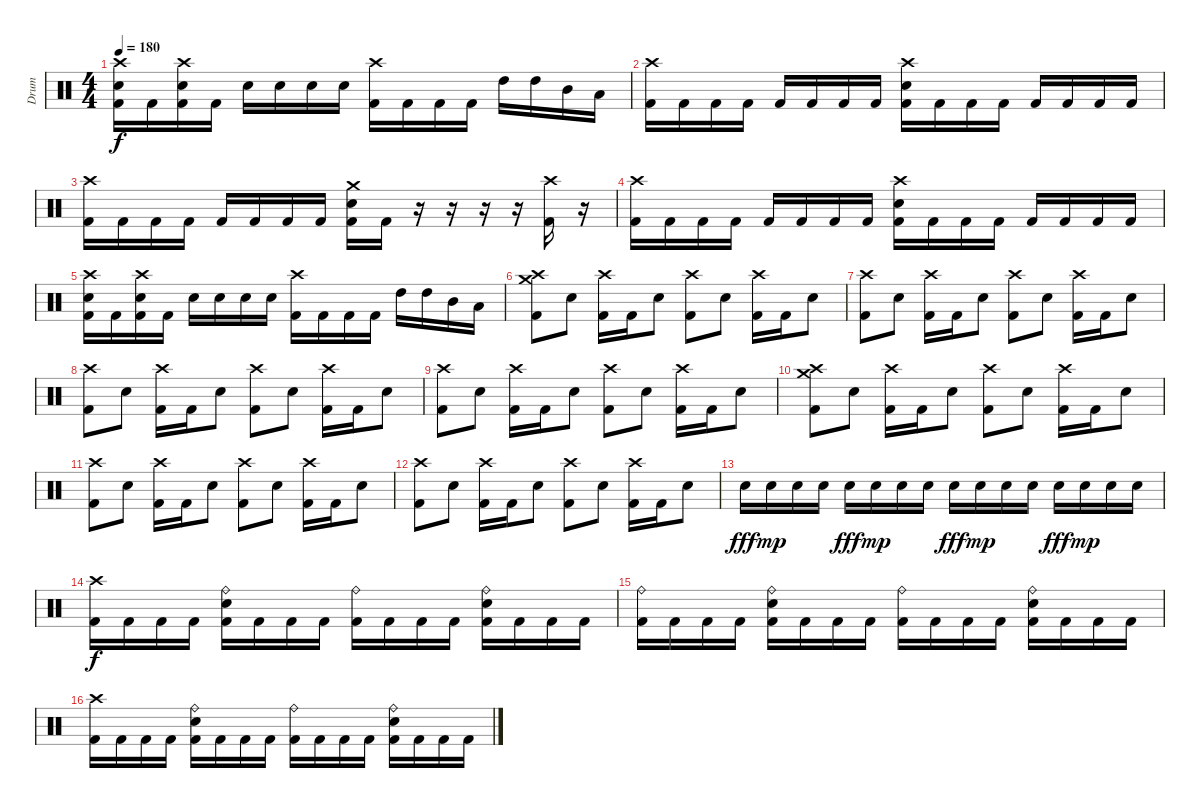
\track ("Drum" "Drum") {instrument percussion}
\staff {score}
\articulation defaults
\ts (4 4)
\tempo 180
\clef neutral
\ks c
("Crash high (hit)" "Electric Snare (hit)" "Kick (hit) 2").16{dy f} "Kick (hit) 2".16 ("Crash high (hit)" "Electric Snare (hit)" "Kick (hit) 2").16 "Kick (hit) 2".16 "Electric Snare (hit)".16 "Electric Snare (hit)".16 "Electric Snare (hit)".16 "Electric Snare (hit)".16 ("Crash high (hit)" "Kick (hit) 2").16 "Kick (hit) 2".16 "Kick (hit) 2".16 "Kick (hit) 2".16 "High Tom (hit)".16 "High Tom (hit)".16 "Mid Tom (hit)".16 "Low Tom (hit)".16 |
("Crash high (hit)" "Kick (hit) 2").16 "Kick (hit) 2".16 "Kick (hit) 2".16 "Kick (hit) 2".16 "Kick (hit) 2".16 "Kick (hit) 2".16 "Kick (hit) 2".16 "Kick (hit) 2".16 ("Crash high (hit)" "Electric Snare (hit)" "Kick (hit) 2").16 "Kick (hit) 2".16 "Kick (hit) 2".16 "Kick (hit) 2".16 "Kick (hit) 2".16 "Kick (hit) 2".16 "Kick (hit) 2".16 "Kick (hit) 2".16 |
("Crash high (hit)" "Kick (hit) 2").16 "Kick (hit) 2".16 "Kick (hit) 2".16 "Kick (hit) 2".16 "Kick (hit) 2".16 "Kick (hit) 2".16 "Kick (hit) 2".16 "Kick (hit) 2".16 ("Crash medium (hit)" "Electric Snare (hit)" "Kick (hit) 2").16 "Kick (hit) 2".16 r.16 r.16 r.16 r.16 ("Crash high (hit)" "Kick (hit) 2").16 r.16 |
("Crash high (hit)" "Kick (hit) 2").16 "Kick (hit) 2".16 "Kick (hit) 2".16 "Kick (hit) 2".16 "Kick (hit) 2".16 "Kick (hit) 2".16 "Kick (hit) 2".16 "Kick (hit) 2".16 ("Crash high (hit)" "Electric Snare (hit)" "Kick (hit) 2").16 "Kick (hit) 2".16 "Kick (hit) 2".16 "Kick (hit) 2".16 "Kick (hit) 2".16 "Kick (hit) 2".16 "Kick (hit) 2".16 "Kick (hit) 2".16 |
("Crash high (hit)" "Electric Snare (hit)" "Kick (hit) 2").16 "Kick (hit) 2".16 ("Crash high (hit)" "Electric Snare (hit)" "Kick (hit) 2").16 "Kick (hit) 2".16 "Electric Snare (hit)".16 "Electric Snare (hit)".16 "Electric Snare (hit)".16 "Electric Snare (hit)".16 ("Crash high (hit)" "Kick (hit) 2").16 "Kick (hit) 2".16 "Kick (hit) 2".16 "Kick (hit) 2".16 "High Tom (hit)".16 "High Tom (hit)".16 "Mid Tom (hit)".16 "Low Tom (hit)".16 |
("Crash high (hit)" "Crash medium (hit)" "Kick (hit) 2").8 "Electric Snare (hit)".8 ("Crash high (hit)" "Kick (hit) 2").16 "Kick (hit) 2".16 "Electric Snare (hit)".8 ("Crash high (hit)" "Kick (hit) 2").8 "Electric Snare (hit)".8 ("Crash high (hit)" "Kick (hit) 2").16 "Kick (hit) 2".16 "Electric Snare (hit)".8 |
("Crash high (hit)" "Kick (hit) 2").8 "Electric Snare (hit)".8 ("Crash high (hit)" "Kick (hit) 2").16 "Kick (hit) 2".16 "Electric Snare (hit)".8 ("Crash high (hit)" "Kick (hit) 2").8 "Electric Snare (hit)".8 ("Crash high (hit)" "Kick (hit) 2").16 "Kick (hit) 2".16 "Electric Snare (hit)".8 |
("Crash high (hit)" "Kick (hit) 2").8 "Electric Snare (hit)".8 ("Crash high (hit)" "Kick (hit) 2").16 "Kick (hit) 2".16 "Electric Snare (hit)".8 ("Crash high (hit)" "Kick (hit) 2").8 "Electric Snare (hit)".8 ("Crash high (hit)" "Kick (hit) 2").16 "Kick (hit) 2".16 "Electric Snare (hit)".8 |
("Crash high (hit)" "Kick (hit) 2").8 "Electric Snare (hit)".8 ("Crash high (hit)" "Kick (hit) 2").16 "Kick (hit) 2".16 "Electric Snare (hit)".8 ("Crash high (hit)" "Kick (hit) 2").8 "Electric Snare (hit)".8 ("Crash high (hit)" "Kick (hit) 2").16 "Kick (hit) 2".16 "Electric Snare (hit)".8 |
("Crash high (hit)" "Crash medium (hit)" "Kick (hit) 2").8 "Electric Snare (hit)".8 ("Crash high (hit)" "Kick (hit) 2").16 "Kick (hit) 2".16 "Electric Snare (hit)".8 ("Crash high (hit)" "Kick (hit) 2").8 "Electric Snare (hit)".8 ("Crash high (hit)" "Kick (hit) 2").16 "Kick (hit) 2".16 "Electric Snare (hit)".8 |
("Crash high (hit)" "Kick (hit) 2").8 "Electric Snare (hit)".8 ("Crash high (hit)" "Kick (hit) 2").16 "Kick (hit) 2".16 "Electric Snare (hit)".8 ("Crash high (hit)" "Kick (hit) 2").8 "Electric Snare (hit)".8 ("Crash high (hit)" "Kick (hit) 2").16 "Kick (hit) 2".16 "Electric Snare (hit)".8 |
("Crash high (hit)" "Kick (hit) 2").8 "Electric Snare (hit)".8 ("Crash high (hit)" "Kick (hit) 2").16 "Kick (hit) 2".16 "Electric Snare (hit)".8 ("Crash high (hit)" "Kick (hit) 2").8 "Electric Snare (hit)".8 ("Crash high (hit)" "Kick (hit) 2").16 "Kick (hit) 2".16 "Electric Snare (hit)".8 |
"Electric Snare (hit)".16{dy fff} "Electric Snare (hit)".16{dy mp} "Electric Snare (hit)".16 "Electric Snare (hit)".16 "Electric Snare (hit)".16{dy fff} "Electric Snare (hit)".16{dy mp} "Electric Snare (hit)".16 "Electric Snare (hit)".16 "Electric Snare (hit)".16{dy fff} "Electric Snare (hit)".16{dy mp} "Electric Snare (hit)".16 "Electric Snare (hit)".16 "Electric Snare (hit)".16{dy fff} "Electric Snare (hit)".16{dy mp} "Electric Snare (hit)".16 "Electric Snare (hit)".16 |
("Crash high (hit)" "Kick (hit) 2").16{dy f} "Kick (hit) 2".16 "Kick (hit) 2".16 "Kick (hit) 2".16 ("Ride (bell)" "Electric Snare (hit)" "Kick (hit) 2").16 "Kick (hit) 2".16 "Kick (hit) 2".16 "Kick (hit) 2".16 ("Ride (bell)" "Kick (hit) 2").16 "Kick (hit) 2".16 "Kick (hit) 2".16 "Kick (hit) 2".16 ("Ride (bell)" "Electric Snare (hit)" "Kick (hit) 2").16 "Kick (hit) 2".16 "Kick (hit) 2".16 "Kick (hit) 2".16 |
("Ride (bell)" "Kick (hit) 2").16 "Kick (hit) 2".16 "Kick (hit) 2".16 "Kick (hit) 2".16 ("Ride (bell)" "Electric Snare (hit)" "Kick (hit) 2").16 "Kick (hit) 2".16 "Kick (hit) 2".16 "Kick (hit) 2".16 ("Ride (bell)" "Kick (hit) 2").16 "Kick (hit) 2".16 "Kick (hit) 2".16 "Kick (hit) 2".16 ("Ride (bell)" "Electric Snare (hit)" "Kick (hit) 2").16 "Kick (hit) 2".16 "Kick (hit) 2".16 "Kick (hit) 2".16 |
("Crash high (hit)" "Kick (hit) 2").16 "Kick (hit) 2".16 "Kick (hit) 2".16 "Kick (hit) 2".16 ("Ride (bell)" "Electric Snare (hit)" "Kick (hit) 2").16 "Kick (hit) 2".16 "Kick (hit) 2".16 "Kick (hit) 2".16 ("Ride (bell)" "Kick (hit) 2").16 "Kick (hit) 2".16 "Kick (hit) 2".16 "Kick (hit) 2".16 ("Ride (bell)" "Electric Snare (hit)" "Kick (hit) 2").16 "Kick (hit) 2".16 "Kick (hit) 2".16 "Kick (hit) 2".16
